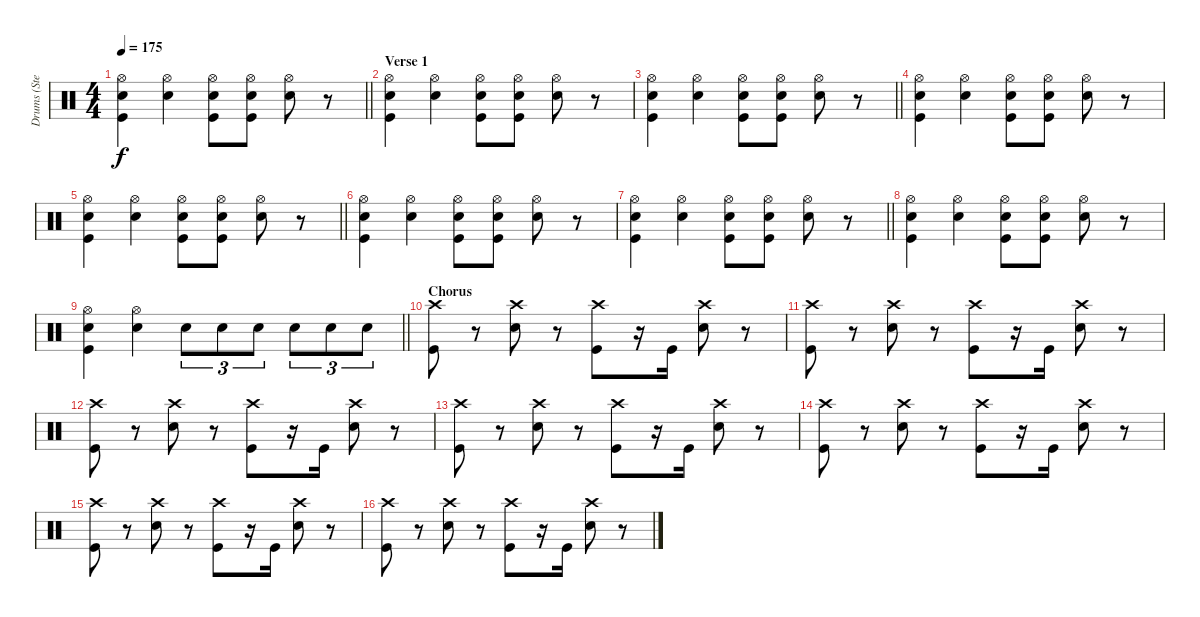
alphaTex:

\track ("Drums (Stevo)" "Drums (Ste") {instrument percussion}
\staff {score}
\articulation defaults
\ts (4 4)
\tempo 175
\clef neutral
\barLineRight lightlight
\ks c
("Hi-Hat (open)" "Kick (hit)" "Snare (hit) 2").4{dy f} ("Hi-Hat (open)" "Snare (hit) 2").4 ("Hi-Hat (open)" "Kick (hit)" "Snare (hit) 2").8 ("Hi-Hat (open)" "Kick (hit)" "Snare (hit) 2").8 ("Hi-Hat (open)" "Snare (hit) 2").8 r.8 |
\section ("" "Verse 1")
("Hi-Hat (open)" "Kick (hit)" "Snare (hit) 2").4 ("Hi-Hat (open)" "Snare (hit) 2").4 ("Hi-Hat (open)" "Kick (hit)" "Snare (hit) 2").8 ("Hi-Hat (open)" "Kick (hit)" "Snare (hit) 2").8 ("Hi-Hat (open)" "Snare (hit) 2").8 r.8 |
\barLineRight lightlight
("Hi-Hat (open)" "Kick (hit)" "Snare (hit) 2").4 ("Hi-Hat (open)" "Snare (hit) 2").4 ("Hi-Hat (open)" "Kick (hit)" "Snare (hit) 2").8 ("Hi-Hat (open)" "Kick (hit)" "Snare (hit) 2").8 ("Hi-Hat (open)" "Snare (hit) 2").8 r.8 |
("Hi-Hat (open)" "Kick (hit)" "Snare (hit) 2").4 ("Hi-Hat (open)" "Snare (hit) 2").4 ("Hi-Hat (open)" "Kick (hit)" "Snare (hit) 2").8 ("Hi-Hat (open)" "Kick (hit)" "Snare (hit) 2").8 ("Hi-Hat (open)" "Snare (hit) 2").8 r.8 |
\barLineRight lightlight
("Hi-Hat (open)" "Kick (hit)" "Snare (hit) 2").4 ("Hi-Hat (open)" "Snare (hit) 2").4 ("Hi-Hat (open)" "Kick (hit)" "Snare (hit) 2").8 ("Hi-Hat (open)" "Kick (hit)" "Snare (hit) 2").8 ("Hi-Hat (open)" "Snare (hit) 2").8 r.8 |
("Hi-Hat (open)" "Kick (hit)" "Snare (hit) 2").4 ("Hi-Hat (open)" "Snare (hit) 2").4 ("Hi-Hat (open)" "Kick (hit)" "Snare (hit) 2").8 ("Hi-Hat (open)" "Kick (hit)" "Snare (hit) 2").8 ("Hi-Hat (open)" "Snare (hit) 2").8 r.8 |
\barLineRight lightlight
("Hi-Hat (open)" "Kick (hit)" "Snare (hit) 2").4 ("Hi-Hat (open)" "Snare (hit) 2").4 ("Hi-Hat (open)" "Kick (hit)" "Snare (hit) 2").8 ("Hi-Hat (open)" "Kick (hit)" "Snare (hit) 2").8 ("Hi-Hat (open)" "Snare (hit) 2").8 r.8 |
("Hi-Hat (open)" "Kick (hit)" "Snare (hit) 2").4 ("Hi-Hat (open)" "Snare (hit) 2").4 ("Hi-Hat (open)" "Kick (hit)" "Snare (hit) 2").8 ("Hi-Hat (open)" "Kick (hit)" "Snare (hit) 2").8 ("Hi-Hat (open)" "Snare (hit) 2").8 r.8 |
\barLineRight lightlight
("Hi-Hat (open)" "Kick (hit)" "Snare (hit) 2").4 ("Hi-Hat (open)" "Snare (hit) 2").4 "Snare (hit) 2".8{tu (3 2)} "Snare (hit) 2".8{tu (3 2)} "Snare (hit) 2".8{tu (3 2)} "Snare (hit) 2".8{tu (3 2)} "Snare (hit) 2".8{tu (3 2)} "Snare (hit) 2".8{tu (3 2)} |
\section ("" "Chorus")
("Crash high (hit)" "Kick (hit)").8 r.8 ("Crash high (hit)" "Snare (hit) 2").8 r.8 ("Crash high (hit)" "Kick (hit)").8 r.16 "Kick (hit)".16 ("Crash high (hit)" "Snare (hit) 2").8 r.8 |
("Crash high (hit)" "Kick (hit)").8 r.8 ("Crash high (hit)" "Snare (hit) 2").8 r.8 ("Crash high (hit)" "Kick (hit)").8 r.16 "Kick (hit)".16 ("Crash high (hit)" "Snare (hit) 2").8 r.8 |
("Crash high (hit)" "Kick (hit)").8 r.8 ("Crash high (hit)" "Snare (hit) 2").8 r.8 ("Crash high (hit)" "Kick (hit)").8 r.16 "Kick (hit)".16 ("Crash high (hit)" "Snare (hit) 2").8 r.8 |
("Crash high (hit)" "Kick (hit)").8 r.8 ("Crash high (hit)" "Snare (hit) 2").8 r.8 ("Crash high (hit)" "Kick (hit)").8 r.16 "Kick (hit)".16 ("Crash high (hit)" "Snare (hit) 2").8 r.8 |
("Crash high (hit)" "Kick (hit)").8 r.8 ("Crash high (hit)" "Snare (hit) 2").8 r.8 ("Crash high (hit)" "Kick (hit)").8 r.16 "Kick (hit)".16 ("Crash high (hit)" "Snare (hit) 2").8 r.8 |
("Crash high (hit)" "Kick (hit)").8 r.8 ("Crash high (hit)" "Snare (hit) 2").8 r.8 ("Crash high (hit)" "Kick (hit)").8 r.16 "Kick (hit)".16 ("Crash high (hit)" "Snare (hit) 2").8 r.8 |
("Crash high (hit)" "Kick (hit)").8 r.8 ("Crash high (hit)" "Snare (hit) 2").8 r.8 ("Crash high (hit)" "Kick (hit)").8 r.16 "Kick (hit)".16 ("Crash high (hit)" "Snare (hit) 2").8 r.8
